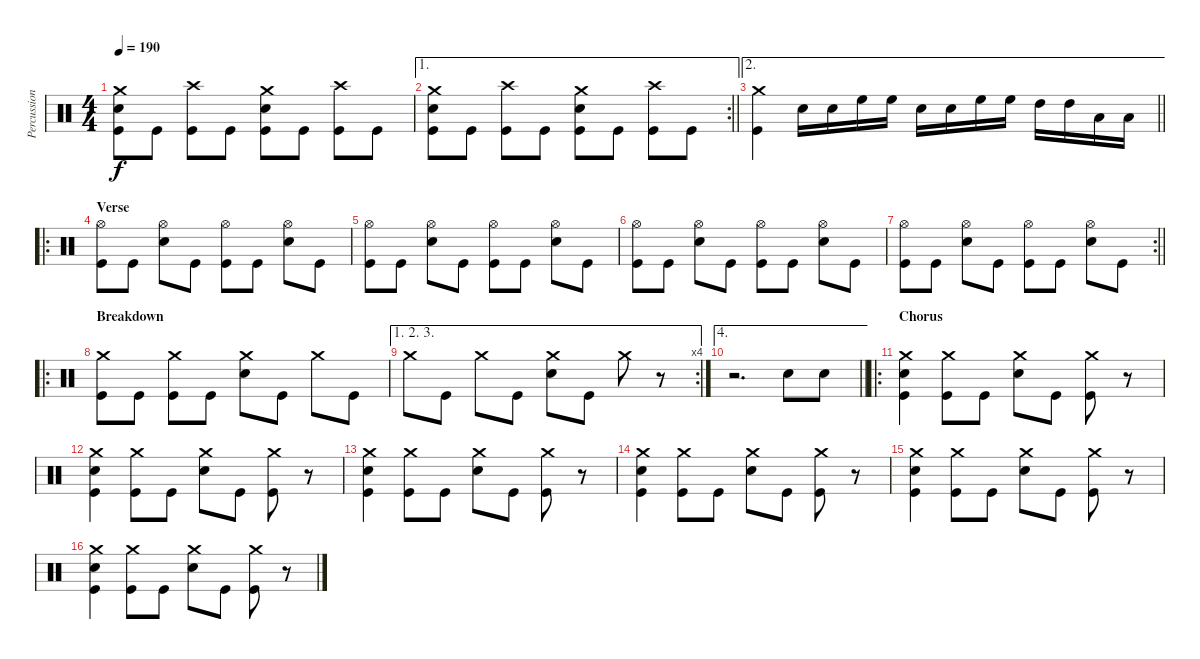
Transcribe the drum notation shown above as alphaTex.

\track ("Percussion" "Percussion") {instrument percussion}
\staff {score}
\articulation defaults
\ts (4 4)
\tempo 190
\clef neutral
\ks c
("Crash medium (hit)" "Snare (hit) 2" "Kick (hit)").8{dy f} "Kick (hit)".8 ("Crash high (hit)" "Kick (hit)").8 "Kick (hit)".8 ("Crash medium (hit)" "Snare (hit) 2" "Kick (hit)").8 "Kick (hit)".8 ("Crash high (hit)" "Kick (hit)").8 "Kick (hit)".8 |
\ae 1
\rc 2
\barLineRight lightlight
("Crash medium (hit)" "Snare (hit) 2" "Kick (hit)").8 "Kick (hit)".8 ("Crash high (hit)" "Kick (hit)").8 "Kick (hit)".8 ("Crash medium (hit)" "Snare (hit) 2" "Kick (hit)").8 "Kick (hit)".8 ("Crash high (hit)" "Kick (hit)").8 "Kick (hit)".8 |
\ae 2
\barLineRight lightlight
("Crash medium (hit)" "Kick (hit)").4 "Snare (hit) 2".16 "Snare (hit) 2".16 "High Floor Tom (hit)".16 "High Floor Tom (hit)".16 "Snare (hit) 2".16 "Snare (hit) 2".16 "High Floor Tom (hit)".16 "High Floor Tom (hit)".16 "High Tom (hit)".16 "High Tom (hit)".16 "Low Tom (hit)".16 "Low Tom (hit)".16 |
\ro
\section ("" "Verse")
("Hi-Hat (open)" "Kick (hit)").8 "Kick (hit)".8 ("Hi-Hat (open)" "Snare (hit) 2").8 "Kick (hit)".8 ("Hi-Hat (open)" "Kick (hit)").8 "Kick (hit)".8 ("Hi-Hat (open)" "Snare (hit) 2").8 "Kick (hit)".8 |
("Hi-Hat (open)" "Kick (hit)").8 "Kick (hit)".8 ("Hi-Hat (open)" "Snare (hit) 2").8 "Kick (hit)".8 ("Hi-Hat (open)" "Kick (hit)").8 "Kick (hit)".8 ("Hi-Hat (open)" "Snare (hit) 2").8 "Kick (hit)".8 |
("Hi-Hat (open)" "Kick (hit)").8 "Kick (hit)".8 ("Hi-Hat (open)" "Snare (hit) 2").8 "Kick (hit)".8 ("Hi-Hat (open)" "Kick (hit)").8 "Kick (hit)".8 ("Hi-Hat (open)" "Snare (hit) 2").8 "Kick (hit)".8 |
\rc 2
\barLineRight lightlight
("Hi-Hat (open)" "Kick (hit)").8 "Kick (hit)".8 ("Hi-Hat (open)" "Snare (hit) 2").8 "Kick (hit)".8 ("Hi-Hat (open)" "Kick (hit)").8 "Kick (hit)".8 ("Hi-Hat (open)" "Snare (hit) 2").8 "Kick (hit)".8 |
\ro
\section ("" "Breakdown")
("Crash medium (hit)" "Kick (hit)").8 "Kick (hit)".8 ("Crash medium (hit)" "Kick (hit)").8 "Kick (hit)".8 ("Crash medium (hit)" "Snare (hit) 2").8 "Kick (hit)".8 "Crash medium (hit)".8 "Kick (hit)".8 |
\ae (1 2 3)
\rc 4 "Crash medium (hit)".8 "Kick (hit)".8 "Crash medium (hit)".8 "Kick (hit)".8
("Crash medium (hit)" "Snare (hit) 2").8 "Kick (hit)".8 "Crash medium (hit)".8 r.8 |
\ae 4
\barLineRight lightlight
r.2{d} "Snare (hit) 2".8 "Snare (hit) 2".8 |
\ro
\section ("" "Chorus")
("Crash medium (hit)" "Snare (hit) 2" "Kick (hit)").4 ("Crash medium (hit)" "Kick (hit)").8 "Kick (hit)".8 ("Crash medium (hit)" "Snare (hit) 2").8 "Kick (hit)".8 ("Crash medium (hit)" "Kick (hit)").8 r.8 |
("Crash medium (hit)" "Snare (hit) 2" "Kick (hit)").4 ("Crash medium (hit)" "Kick (hit)").8 "Kick (hit)".8 ("Crash medium (hit)" "Snare (hit) 2").8 "Kick (hit)".8 ("Crash medium (hit)" "Kick (hit)").8 r.8 |
("Crash medium (hit)" "Snare (hit) 2" "Kick (hit)").4 ("Crash medium (hit)" "Kick (hit)").8 "Kick (hit)".8 ("Crash medium (hit)" "Snare (hit) 2").8 "Kick (hit)".8 ("Crash medium (hit)" "Kick (hit)").8 r.8 |
("Crash medium (hit)" "Snare (hit) 2" "Kick (hit)").4 ("Crash medium (hit)" "Kick (hit)").8 "Kick (hit)".8 ("Crash medium (hit)" "Snare (hit) 2").8 "Kick (hit)".8 ("Crash medium (hit)" "Kick (hit)").8 r.8 |
("Crash medium (hit)" "Snare (hit) 2" "Kick (hit)").4 ("Crash medium (hit)" "Kick (hit)").8 "Kick (hit)".8 ("Crash medium (hit)" "Snare (hit) 2").8 "Kick (hit)".8 ("Crash medium (hit)" "Kick (hit)").8 r.8 |
("Crash medium (hit)" "Snare (hit) 2" "Kick (hit)").4 ("Crash medium (hit)" "Kick (hit)").8 "Kick (hit)".8 ("Crash medium (hit)" "Snare (hit) 2").8 "Kick (hit)".8 ("Crash medium (hit)" "Kick (hit)").8 r.8
